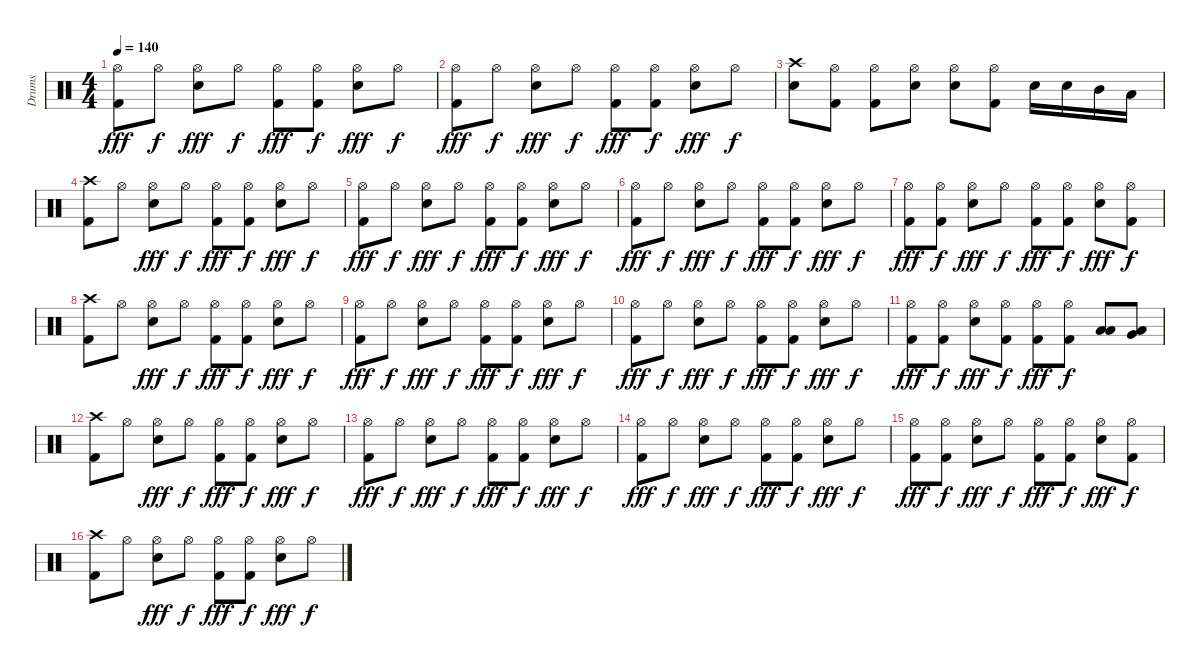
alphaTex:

\track ("Drums" "Drums") {instrument percussion}
\staff {score}
\articulation defaults
\ts (4 4)
\tempo 140
\clef neutral
\ks c
("Hi-Hat (open)" "Kick (hit) 2").8{dy fff} "Hi-Hat (open)".8{dy f} ("Hi-Hat (open)" "Snare (hit) 2").8{dy fff} "Hi-Hat (open)".8{dy f} ("Hi-Hat (open)" "Kick (hit) 2").8{dy fff} ("Hi-Hat (open)" "Kick (hit) 2").8{dy f} ("Hi-Hat (open)" "Snare (hit) 2").8{dy fff} "Hi-Hat (open)".8{dy f} |
("Hi-Hat (open)" "Kick (hit) 2").8{dy fff} "Hi-Hat (open)".8{dy f} ("Hi-Hat (open)" "Snare (hit) 2").8{dy fff} "Hi-Hat (open)".8{dy f} ("Hi-Hat (open)" "Kick (hit) 2").8{dy fff} ("Hi-Hat (open)" "Kick (hit) 2").8{dy f} ("Hi-Hat (open)" "Snare (hit) 2").8{dy fff} "Hi-Hat (open)".8{dy f} |
("Crash high (hit)" "Snare (hit) 2").8 ("Hi-Hat (open)" "Kick (hit) 2").8 ("Hi-Hat (open)" "Kick (hit) 2").8 ("Hi-Hat (open)" "Snare (hit) 2").8 ("Hi-Hat (open)" "Snare (hit) 2").8 ("Hi-Hat (open)" "Kick (hit) 2").8 "Snare (hit) 2".16 "Snare (hit) 2".16 "Mid Tom (hit)".16 "Low Tom (hit)".16 |
("Crash high (hit)" "Kick (hit) 2").8 "Hi-Hat (open)".8 ("Hi-Hat (open)" "Snare (hit) 2").8{dy fff} "Hi-Hat (open)".8{dy f} ("Hi-Hat (open)" "Kick (hit) 2").8{dy fff} ("Hi-Hat (open)" "Kick (hit) 2").8{dy f} ("Hi-Hat (open)" "Snare (hit) 2").8{dy fff} "Hi-Hat (open)".8{dy f} |
("Hi-Hat (open)" "Kick (hit) 2").8{dy fff} "Hi-Hat (open)".8{dy f} ("Hi-Hat (open)" "Snare (hit) 2").8{dy fff} "Hi-Hat (open)".8{dy f} ("Hi-Hat (open)" "Kick (hit) 2").8{dy fff} ("Hi-Hat (open)" "Kick (hit) 2").8{dy f} ("Hi-Hat (open)" "Snare (hit) 2").8{dy fff} "Hi-Hat (open)".8{dy f} |
("Hi-Hat (open)" "Kick (hit) 2").8{dy fff} "Hi-Hat (open)".8{dy f} ("Hi-Hat (open)" "Snare (hit) 2").8{dy fff} "Hi-Hat (open)".8{dy f} ("Hi-Hat (open)" "Kick (hit) 2").8{dy fff} ("Hi-Hat (open)" "Kick (hit) 2").8{dy f} ("Hi-Hat (open)" "Snare (hit) 2").8{dy fff} "Hi-Hat (open)".8{dy f} |
("Hi-Hat (open)" "Kick (hit) 2").8{dy fff} ("Hi-Hat (open)" "Kick (hit) 2").8{dy f} ("Hi-Hat (open)" "Snare (hit) 2").8{dy fff} "Hi-Hat (open)".8{dy f} ("Hi-Hat (open)" "Kick (hit) 2").8{dy fff} ("Hi-Hat (open)" "Kick (hit) 2").8{dy f} ("Hi-Hat (open)" "Snare (hit) 2").8{dy fff} ("Hi-Hat (open)" "Kick (hit) 2").8{dy f} |
("Crash high (hit)" "Kick (hit) 2").8 "Hi-Hat (open)".8 ("Hi-Hat (open)" "Snare (hit) 2").8{dy fff} "Hi-Hat (open)".8{dy f} ("Hi-Hat (open)" "Kick (hit) 2").8{dy fff} ("Hi-Hat (open)" "Kick (hit) 2").8{dy f} ("Hi-Hat (open)" "Snare (hit) 2").8{dy fff} "Hi-Hat (open)".8{dy f} |
("Hi-Hat (open)" "Kick (hit) 2").8{dy fff} "Hi-Hat (open)".8{dy f} ("Hi-Hat (open)" "Snare (hit) 2").8{dy fff} "Hi-Hat (open)".8{dy f} ("Hi-Hat (open)" "Kick (hit) 2").8{dy fff} ("Hi-Hat (open)" "Kick (hit) 2").8{dy f} ("Hi-Hat (open)" "Snare (hit) 2").8{dy fff} "Hi-Hat (open)".8{dy f} |
("Hi-Hat (open)" "Kick (hit) 2").8{dy fff} "Hi-Hat (open)".8{dy f} ("Hi-Hat (open)" "Snare (hit) 2").8{dy fff} "Hi-Hat (open)".8{dy f} ("Hi-Hat (open)" "Kick (hit) 2").8{dy fff} ("Hi-Hat (open)" "Kick (hit) 2").8{dy f} ("Hi-Hat (open)" "Snare (hit) 2").8{dy fff} "Hi-Hat (open)".8{dy f} |
("Hi-Hat (open)" "Kick (hit) 2").8{dy fff} ("Hi-Hat (open)" "Kick (hit) 2").8{dy f} ("Hi-Hat (open)" "Snare (hit) 2").8{dy fff} ("Hi-Hat (open)" "Kick (hit) 2").8{dy f} ("Hi-Hat (open)" "Kick (hit) 2").8{dy fff} ("Hi-Hat (open)" "Kick (hit) 2").8{dy f} ("Low Floor Tom (hit)" "Low Tom (hit)").8 ("Low Floor Tom (hit)" "Very Low Tom (hit)").8 |
("Crash high (hit)" "Kick (hit) 2").8 "Hi-Hat (open)".8 ("Hi-Hat (open)" "Snare (hit) 2").8{dy fff} "Hi-Hat (open)".8{dy f} ("Hi-Hat (open)" "Kick (hit) 2").8{dy fff} ("Hi-Hat (open)" "Kick (hit) 2").8{dy f} ("Hi-Hat (open)" "Snare (hit) 2").8{dy fff} "Hi-Hat (open)".8{dy f} |
("Hi-Hat (open)" "Kick (hit) 2").8{dy fff} "Hi-Hat (open)".8{dy f} ("Hi-Hat (open)" "Snare (hit) 2").8{dy fff} "Hi-Hat (open)".8{dy f} ("Hi-Hat (open)" "Kick (hit) 2").8{dy fff} ("Hi-Hat (open)" "Kick (hit) 2").8{dy f} ("Hi-Hat (open)" "Snare (hit) 2").8{dy fff} "Hi-Hat (open)".8{dy f} |
("Hi-Hat (open)" "Kick (hit) 2").8{dy fff} "Hi-Hat (open)".8{dy f} ("Hi-Hat (open)" "Snare (hit) 2").8{dy fff} "Hi-Hat (open)".8{dy f} ("Hi-Hat (open)" "Kick (hit) 2").8{dy fff} ("Hi-Hat (open)" "Kick (hit) 2").8{dy f} ("Hi-Hat (open)" "Snare (hit) 2").8{dy fff} "Hi-Hat (open)".8{dy f} |
("Hi-Hat (open)" "Kick (hit) 2").8{dy fff} ("Hi-Hat (open)" "Kick (hit) 2").8{dy f} ("Hi-Hat (open)" "Snare (hit) 2").8{dy fff} "Hi-Hat (open)".8{dy f} ("Hi-Hat (open)" "Kick (hit) 2").8{dy fff} ("Hi-Hat (open)" "Kick (hit) 2").8{dy f} ("Hi-Hat (open)" "Snare (hit) 2").8{dy fff} ("Hi-Hat (open)" "Kick (hit) 2").8{dy f} |
("Crash high (hit)" "Kick (hit) 2").8 "Hi-Hat (open)".8 ("Hi-Hat (open)" "Snare (hit) 2").8{dy fff} "Hi-Hat (open)".8{dy f} ("Hi-Hat (open)" "Kick (hit) 2").8{dy fff} ("Hi-Hat (open)" "Kick (hit) 2").8{dy f} ("Hi-Hat (open)" "Snare (hit) 2").8{dy fff} "Hi-Hat (open)".8{dy f}
